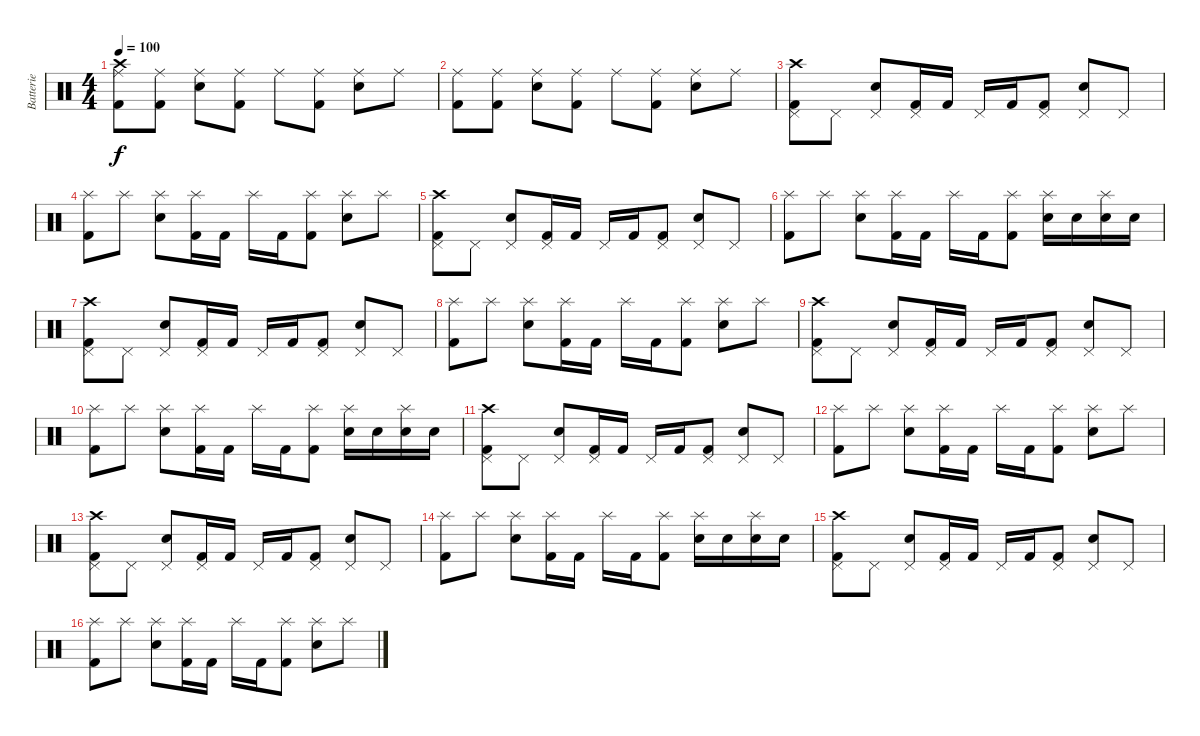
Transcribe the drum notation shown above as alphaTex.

\track ("Batterie" "Batterie") {instrument percussion}
\staff {score}
\articulation defaults
\ts (4 4)
\tempo 100
\clef neutral
\ks c
("Crash high (hit)" "Ride (middle)" "Kick (hit) 2").8{dy f} ("Ride (middle)" "Kick (hit) 2").8 ("Ride (middle)" "Electric Snare (hit)").8 ("Ride (middle)" "Kick (hit) 2").8 "Ride (middle)".8 ("Ride (middle)" "Kick (hit) 2").8 ("Ride (middle)" "Electric Snare (hit)").8 "Ride (middle)".8 |
("Ride (middle)" "Kick (hit) 2").8 ("Ride (middle)" "Kick (hit) 2").8 ("Ride (middle)" "Electric Snare (hit)").8 ("Ride (middle)" "Kick (hit) 2").8 "Ride (middle)".8 ("Ride (middle)" "Kick (hit) 2").8 ("Ride (middle)" "Electric Snare (hit)").8 "Ride (middle)".8 |
("Crash high (hit)" "Pedal Hi-Hat (hit)" "Kick (hit) 2").8 "Pedal Hi-Hat (hit)".8 ("Pedal Hi-Hat (hit)" "Electric Snare (hit)").8 ("Pedal Hi-Hat (hit)" "Kick (hit) 2").16 "Kick (hit) 2".16 "Pedal Hi-Hat (hit)".16 "Kick (hit) 2".16 ("Pedal Hi-Hat (hit)" "Kick (hit) 2").8 ("Pedal Hi-Hat (hit)" "Electric Snare (hit)").8 "Pedal Hi-Hat (hit)".8 |
("Splash (hit)" "Kick (hit) 2").8 "Splash (hit)".8 ("Splash (hit)" "Electric Snare (hit)").8 ("Splash (hit)" "Kick (hit) 2").16 "Kick (hit) 2".16 "Splash (hit)".16 "Kick (hit) 2".16 ("Splash (hit)" "Kick (hit) 2").8 ("Splash (hit)" "Electric Snare (hit)").8 "Splash (hit)".8 |
("Crash high (hit)" "Pedal Hi-Hat (hit)" "Kick (hit) 2").8 "Pedal Hi-Hat (hit)".8 ("Pedal Hi-Hat (hit)" "Electric Snare (hit)").8 ("Pedal Hi-Hat (hit)" "Kick (hit) 2").16 "Kick (hit) 2".16 "Pedal Hi-Hat (hit)".16 "Kick (hit) 2".16 ("Pedal Hi-Hat (hit)" "Kick (hit) 2").8 ("Pedal Hi-Hat (hit)" "Electric Snare (hit)").8 "Pedal Hi-Hat (hit)".8 |
("Splash (hit)" "Kick (hit) 2").8 "Splash (hit)".8 ("Splash (hit)" "Electric Snare (hit)").8 ("Splash (hit)" "Kick (hit) 2").16 "Kick (hit) 2".16 "Splash (hit)".16 "Kick (hit) 2".16 ("Splash (hit)" "Kick (hit) 2").8 ("Splash (hit)" "Electric Snare (hit)").16 "Electric Snare (hit)".16 ("Splash (hit)" "Electric Snare (hit)").16 "Electric Snare (hit)".16 |
("Crash high (hit)" "Pedal Hi-Hat (hit)" "Kick (hit) 2").8 "Pedal Hi-Hat (hit)".8 ("Pedal Hi-Hat (hit)" "Electric Snare (hit)").8 ("Pedal Hi-Hat (hit)" "Kick (hit) 2").16 "Kick (hit) 2".16 "Pedal Hi-Hat (hit)".16 "Kick (hit) 2".16 ("Pedal Hi-Hat (hit)" "Kick (hit) 2").8 ("Pedal Hi-Hat (hit)" "Electric Snare (hit)").8 "Pedal Hi-Hat (hit)".8 |
("Splash (hit)" "Kick (hit) 2").8 "Splash (hit)".8 ("Splash (hit)" "Electric Snare (hit)").8 ("Splash (hit)" "Kick (hit) 2").16 "Kick (hit) 2".16 "Splash (hit)".16 "Kick (hit) 2".16 ("Splash (hit)" "Kick (hit) 2").8 ("Splash (hit)" "Electric Snare (hit)").8 "Splash (hit)".8 |
("Crash high (hit)" "Pedal Hi-Hat (hit)" "Kick (hit) 2").8 "Pedal Hi-Hat (hit)".8 ("Pedal Hi-Hat (hit)" "Electric Snare (hit)").8 ("Pedal Hi-Hat (hit)" "Kick (hit) 2").16 "Kick (hit) 2".16 "Pedal Hi-Hat (hit)".16 "Kick (hit) 2".16 ("Pedal Hi-Hat (hit)" "Kick (hit) 2").8 ("Pedal Hi-Hat (hit)" "Electric Snare (hit)").8 "Pedal Hi-Hat (hit)".8 |
("Splash (hit)" "Kick (hit) 2").8 "Splash (hit)".8 ("Splash (hit)" "Electric Snare (hit)").8 ("Splash (hit)" "Kick (hit) 2").16 "Kick (hit) 2".16 "Splash (hit)".16 "Kick (hit) 2".16 ("Splash (hit)" "Kick (hit) 2").8 ("Splash (hit)" "Electric Snare (hit)").16 "Electric Snare (hit)".16 ("Splash (hit)" "Electric Snare (hit)").16 "Electric Snare (hit)".16 |
("Crash high (hit)" "Pedal Hi-Hat (hit)" "Kick (hit) 2").8 "Pedal Hi-Hat (hit)".8 ("Pedal Hi-Hat (hit)" "Electric Snare (hit)").8 ("Pedal Hi-Hat (hit)" "Kick (hit) 2").16 "Kick (hit) 2".16 "Pedal Hi-Hat (hit)".16 "Kick (hit) 2".16 ("Pedal Hi-Hat (hit)" "Kick (hit) 2").8 ("Pedal Hi-Hat (hit)" "Electric Snare (hit)").8 "Pedal Hi-Hat (hit)".8 |
("Splash (hit)" "Kick (hit) 2").8 "Splash (hit)".8 ("Splash (hit)" "Electric Snare (hit)").8 ("Splash (hit)" "Kick (hit) 2").16 "Kick (hit) 2".16 "Splash (hit)".16 "Kick (hit) 2".16 ("Splash (hit)" "Kick (hit) 2").8 ("Splash (hit)" "Electric Snare (hit)").8 "Splash (hit)".8 |
("Crash high (hit)" "Pedal Hi-Hat (hit)" "Kick (hit) 2").8 "Pedal Hi-Hat (hit)".8 ("Pedal Hi-Hat (hit)" "Electric Snare (hit)").8 ("Pedal Hi-Hat (hit)" "Kick (hit) 2").16 "Kick (hit) 2".16 "Pedal Hi-Hat (hit)".16 "Kick (hit) 2".16 ("Pedal Hi-Hat (hit)" "Kick (hit) 2").8 ("Pedal Hi-Hat (hit)" "Electric Snare (hit)").8 "Pedal Hi-Hat (hit)".8 |
("Splash (hit)" "Kick (hit) 2").8 "Splash (hit)".8 ("Splash (hit)" "Electric Snare (hit)").8 ("Splash (hit)" "Kick (hit) 2").16 "Kick (hit) 2".16 "Splash (hit)".16 "Kick (hit) 2".16 ("Splash (hit)" "Kick (hit) 2").8 ("Splash (hit)" "Electric Snare (hit)").16 "Electric Snare (hit)".16 ("Splash (hit)" "Electric Snare (hit)").16 "Electric Snare (hit)".16 |
("Crash high (hit)" "Pedal Hi-Hat (hit)" "Kick (hit) 2").8 "Pedal Hi-Hat (hit)".8 ("Pedal Hi-Hat (hit)" "Electric Snare (hit)").8 ("Pedal Hi-Hat (hit)" "Kick (hit) 2").16 "Kick (hit) 2".16 "Pedal Hi-Hat (hit)".16 "Kick (hit) 2".16 ("Pedal Hi-Hat (hit)" "Kick (hit) 2").8 ("Pedal Hi-Hat (hit)" "Electric Snare (hit)").8 "Pedal Hi-Hat (hit)".8 |
("Splash (hit)" "Kick (hit) 2").8 "Splash (hit)".8 ("Splash (hit)" "Electric Snare (hit)").8 ("Splash (hit)" "Kick (hit) 2").16 "Kick (hit) 2".16 "Splash (hit)".16 "Kick (hit) 2".16 ("Splash (hit)" "Kick (hit) 2").8 ("Splash (hit)" "Electric Snare (hit)").8 "Splash (hit)".8
